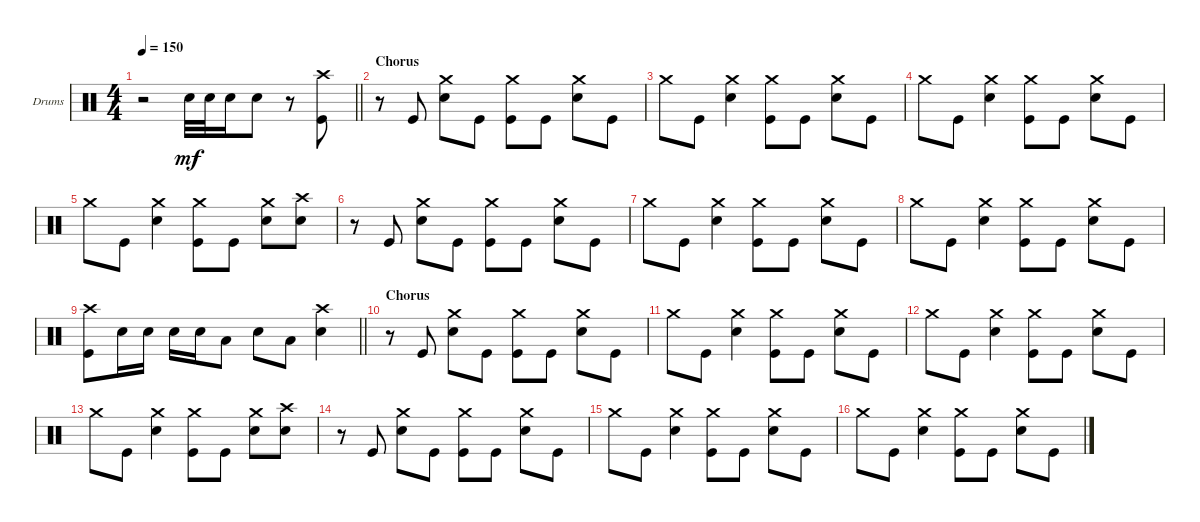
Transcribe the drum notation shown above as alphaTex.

\defaultSystemsLayout 4
\bracketExtendMode groupsimilarinstruments
\firstSystemTrackNameOrientation horizontal
\otherSystemsTrackNameOrientation horizontal
\track ("Drums" "Drums") {instrument percussion}
\staff {score}
\articulation defaults
\ts (4 4)
\tempo 150
\clef neutral
\barLineRight lightlight
\ks c
r.2{dy mf} "Snare (hit) 2".32 "Snare (hit) 2".32 "Snare (hit) 2".16 "Snare (hit) 2".8 r.8 ("Kick (hit)" "Crash high (hit)").8 |
\section ("" "Chorus")
r.8 "Kick (hit)".8 ("Snare (hit) 2" "Crash medium (hit)").8 "Kick (hit)".8 ("Kick (hit)" "Crash medium (hit)").8 "Kick (hit)".8 ("Snare (hit) 2" "Crash medium (hit)").8 "Kick (hit)".8 |
"Crash medium (hit)".8 "Kick (hit)".8 ("Snare (hit) 2" "Crash medium (hit)").4 ("Kick (hit)" "Crash medium (hit)").8 "Kick (hit)".8 ("Snare (hit) 2" "Crash medium (hit)").8 "Kick (hit)".8 |
"Crash medium (hit)".8 "Kick (hit)".8 ("Snare (hit) 2" "Crash medium (hit)").4 ("Kick (hit)" "Crash medium (hit)").8 "Kick (hit)".8 ("Snare (hit) 2" "Crash medium (hit)").8 "Kick (hit)".8 |
"Crash medium (hit)".8 "Kick (hit)".8 ("Snare (hit) 2" "Crash medium (hit)").4 ("Kick (hit)" "Crash medium (hit)").8 "Kick (hit)".8 ("Snare (hit) 2" "Crash medium (hit)").8 ("Snare (hit) 2" "Crash high (hit)").8 |
r.8 "Kick (hit)".8 ("Snare (hit) 2" "Crash medium (hit)").8 "Kick (hit)".8 ("Kick (hit)" "Crash medium (hit)").8 "Kick (hit)".8 ("Snare (hit) 2" "Crash medium (hit)").8 "Kick (hit)".8 |
"Crash medium (hit)".8 "Kick (hit)".8 ("Snare (hit) 2" "Crash medium (hit)").4 ("Kick (hit)" "Crash medium (hit)").8 "Kick (hit)".8 ("Snare (hit) 2" "Crash medium (hit)").8 "Kick (hit)".8 |
"Crash medium (hit)".8 "Kick (hit)".8 ("Snare (hit) 2" "Crash medium (hit)").4 ("Kick (hit)" "Crash medium (hit)").8 "Kick (hit)".8 ("Snare (hit) 2" "Crash medium (hit)").8 "Kick (hit)".8 |
\barLineRight lightlight
("Crash high (hit)" "Kick (hit)").8 "Snare (hit) 2".16 "Snare (hit) 2".16 "Snare (hit) 2".16 "Snare (hit) 2".16 "Low Tom (hit)".8 "Snare (hit) 2".8 "Low Tom (hit)".8 ("Snare (hit) 2" "Crash high (hit)").4 |
\section ("" "Chorus")
r.8 "Kick (hit)".8 ("Snare (hit) 2" "Crash medium (hit)").8 "Kick (hit)".8 ("Kick (hit)" "Crash medium (hit)").8 "Kick (hit)".8 ("Snare (hit) 2" "Crash medium (hit)").8 "Kick (hit)".8 |
"Crash medium (hit)".8 "Kick (hit)".8 ("Snare (hit) 2" "Crash medium (hit)").4 ("Kick (hit)" "Crash medium (hit)").8 "Kick (hit)".8 ("Snare (hit) 2" "Crash medium (hit)").8 "Kick (hit)".8 |
"Crash medium (hit)".8 "Kick (hit)".8 ("Snare (hit) 2" "Crash medium (hit)").4 ("Kick (hit)" "Crash medium (hit)").8 "Kick (hit)".8 ("Snare (hit) 2" "Crash medium (hit)").8 "Kick (hit)".8 |
"Crash medium (hit)".8 "Kick (hit)".8 ("Snare (hit) 2" "Crash medium (hit)").4 ("Kick (hit)" "Crash medium (hit)").8 "Kick (hit)".8 ("Snare (hit) 2" "Crash medium (hit)").8 ("Snare (hit) 2" "Crash high (hit)").8 |
r.8 "Kick (hit)".8 ("Snare (hit) 2" "Crash medium (hit)").8 "Kick (hit)".8 ("Kick (hit)" "Crash medium (hit)").8 "Kick (hit)".8 ("Snare (hit) 2" "Crash medium (hit)").8 "Kick (hit)".8 |
"Crash medium (hit)".8 "Kick (hit)".8 ("Snare (hit) 2" "Crash medium (hit)").4 ("Kick (hit)" "Crash medium (hit)").8 "Kick (hit)".8 ("Snare (hit) 2" "Crash medium (hit)").8 "Kick (hit)".8 |
"Crash medium (hit)".8 "Kick (hit)".8 ("Snare (hit) 2" "Crash medium (hit)").4 ("Kick (hit)" "Crash medium (hit)").8 "Kick (hit)".8 ("Snare (hit) 2" "Crash medium (hit)").8 "Kick (hit)".8
